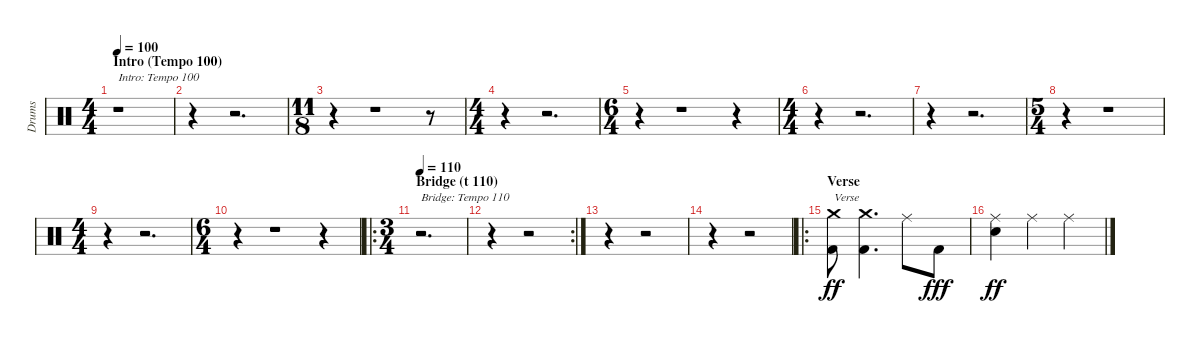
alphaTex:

\track ("Drums" "Drums") {instrument percussion}
\staff {score}
\articulation defaults
\ts (4 4)
\section ("" "Intro (Tempo 100)")
\tempo 100
\clef neutral
\ks c
r.1{txt "Intro: Tempo 100" dy ff} |
r.4 r.2{d} |
\ts (11 8)
r.4 r.1 r.8 |
\ts (4 4)
r.4 r.2{d} |
\ts (6 4)
r.4 r.1 r.4 |
\ts (4 4)
r.4 r.2{d} |
r.4 r.2{d} |
\ts (5 4)
r.4 r.1 |
\ts (4 4)
r.4 r.2{d} |
\ts (6 4)
r.4 r.1 r.4 |
\ro
\ts (3 4)
\section ("" "Bridge (t 110)")
\tempo 110
r.2{d txt "Bridge: Tempo 110"} |
\rc 2
r.4 r.2 |
r.4 r.2 |
r.4 r.2 |
\ro
\section ("" "Verse")
("Crash medium (hit)" "Kick (hit) 2").8{txt "Verse"} ("Crash medium (hit)" "Kick (hit) 2").4{d} "Ride (middle)".8 "Kick (hit) 2".8{dy fff} |
("Ride (middle)" "Snare (hit) 2").4{dy ff} "Ride (middle)".4 "Ride (middle)".4
